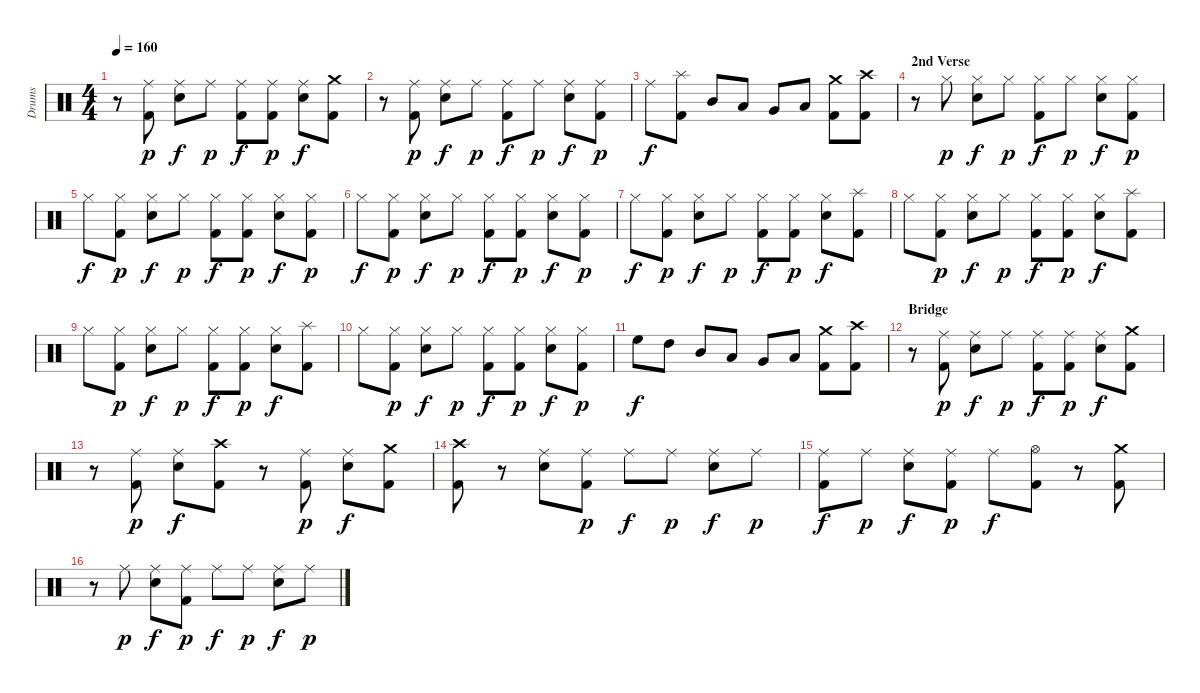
\track ("Drums" "Drums") {instrument percussion}
\staff {score}
\articulation defaults
\ts (4 4)
\tempo 160
\clef neutral
\ks c
r.8{dy f} ("Ride (middle)" "Kick (hit) 2").8{dy p} ("Ride (middle)" "Snare (hit) 2").8{dy f} "Ride (middle)".8{dy p} ("Ride (middle)" "Kick (hit) 2").8{dy f} ("Ride (middle)" "Kick (hit) 2").8{dy p} ("Ride (middle)" "Snare (hit) 2").8{dy f} ("Crash medium (hit)" "Kick (hit) 2").8 |
r.8 ("Ride (middle)" "Kick (hit) 2").8{dy p} ("Ride (middle)" "Snare (hit) 2").8{dy f} "Ride (middle)".8{dy p} ("Ride (middle)" "Kick (hit) 2").8{dy f} "Ride (middle)".8{dy p} ("Ride (middle)" "Snare (hit) 2").8{dy f} ("Ride (middle)" "Kick (hit) 2").8{dy p} |
"Ride (middle)".8{dy f} ("Splash (hit)" "Kick (hit) 2").8 "Mid Tom (hit)".8 "Low Tom (hit)".8 "Very Low Tom (hit)".8 "Low Floor Tom (hit)".8 ("Crash medium (hit)" "Kick (hit) 2").8 ("Crash high (hit)" "Kick (hit) 2").8 |
\section ("" "2nd Verse")
r.8 "Hi-Hat (closed)".8{dy p} ("Hi-Hat (closed)" "Snare (hit) 2").8{dy f} "Hi-Hat (closed)".8{dy p} ("Hi-Hat (closed)" "Kick (hit) 2").8{dy f} "Hi-Hat (closed)".8{dy p} ("Hi-Hat (closed)" "Snare (hit) 2").8{dy f} ("Hi-Hat (closed)" "Kick (hit) 2").8{dy p} |
"Hi-Hat (closed)".8{dy f} ("Hi-Hat (closed)" "Kick (hit) 2").8{dy p} ("Hi-Hat (closed)" "Snare (hit) 2").8{dy f} "Hi-Hat (closed)".8{dy p} ("Hi-Hat (closed)" "Kick (hit) 2").8{dy f} ("Hi-Hat (closed)" "Kick (hit) 2").8{dy p} ("Hi-Hat (closed)" "Snare (hit) 2").8{dy f} ("Hi-Hat (closed)" "Kick (hit) 2").8{dy p} |
"Hi-Hat (closed)".8{dy f} ("Hi-Hat (closed)" "Kick (hit) 2").8{dy p} ("Hi-Hat (closed)" "Snare (hit) 2").8{dy f} "Hi-Hat (closed)".8{dy p} ("Hi-Hat (closed)" "Kick (hit) 2").8{dy f} ("Hi-Hat (closed)" "Kick (hit) 2").8{dy p} ("Hi-Hat (closed)" "Snare (hit) 2").8{dy f} ("Hi-Hat (closed)" "Kick (hit) 2").8{dy p} |
"Hi-Hat (closed)".8{dy f} ("Hi-Hat (closed)" "Kick (hit) 2").8{dy p} ("Hi-Hat (closed)" "Snare (hit) 2").8{dy f} "Hi-Hat (closed)".8{dy p} ("Hi-Hat (closed)" "Kick (hit) 2").8{dy f} ("Hi-Hat (closed)" "Kick (hit) 2").8{dy p} ("Hi-Hat (closed)" "Snare (hit) 2").8{dy f} ("Splash (hit)" "Kick (hit) 2").8 |
"Hi-Hat (closed)".8 ("Hi-Hat (closed)" "Kick (hit) 2").8{dy p} ("Hi-Hat (closed)" "Snare (hit) 2").8{dy f} "Hi-Hat (closed)".8{dy p} ("Hi-Hat (closed)" "Kick (hit) 2").8{dy f} ("Hi-Hat (closed)" "Kick (hit) 2").8{dy p} ("Hi-Hat (closed)" "Snare (hit) 2").8{dy f} ("Splash (hit)" "Kick (hit) 2").8 |
"Hi-Hat (closed)".8 ("Hi-Hat (closed)" "Kick (hit) 2").8{dy p} ("Hi-Hat (closed)" "Snare (hit) 2").8{dy f} "Hi-Hat (closed)".8{dy p} ("Hi-Hat (closed)" "Kick (hit) 2").8{dy f} ("Hi-Hat (closed)" "Kick (hit) 2").8{dy p} ("Hi-Hat (closed)" "Snare (hit) 2").8{dy f} ("Splash (hit)" "Kick (hit) 2").8 |
"Hi-Hat (closed)".8 ("Hi-Hat (closed)" "Kick (hit) 2").8{dy p} ("Hi-Hat (closed)" "Snare (hit) 2").8{dy f} "Hi-Hat (closed)".8{dy p} ("Hi-Hat (closed)" "Kick (hit) 2").8{dy f} ("Hi-Hat (closed)" "Kick (hit) 2").8{dy p} ("Hi-Hat (closed)" "Snare (hit) 2").8{dy f} ("Hi-Hat (closed)" "Kick (hit) 2").8{dy p} |
"High Floor Tom (hit)".8{dy f} "High Tom (hit)".8 "Mid Tom (hit)".8 "Low Tom (hit)".8 "Very Low Tom (hit)".8 "Low Floor Tom (hit)".8 ("Crash medium (hit)" "Kick (hit) 2").8 ("Crash high (hit)" "Kick (hit) 2").8 |
\section ("" "Bridge")
r.8 ("Ride (middle)" "Kick (hit) 2").8{dy p} ("Ride (middle)" "Snare (hit) 2").8{dy f} "Ride (middle)".8{dy p} ("Ride (middle)" "Kick (hit) 2").8{dy f} ("Ride (middle)" "Kick (hit) 2").8{dy p} ("Ride (middle)" "Snare (hit) 2").8{dy f} ("Crash medium (hit)" "Kick (hit) 2").8 |
r.8 ("Ride (middle)" "Kick (hit) 2").8{dy p} ("Ride (middle)" "Snare (hit) 2").8{dy f} ("Crash high (hit)" "Kick (hit) 2").8 r.8 ("Ride (middle)" "Kick (hit) 2").8{dy p} ("Ride (middle)" "Snare (hit) 2").8{dy f} ("Crash medium (hit)" "Kick (hit) 2").8 |
("Crash high (hit)" "Kick (hit) 2").8 r.8 ("Ride (middle)" "Snare (hit) 2").8 ("Ride (middle)" "Kick (hit) 2").8{dy p} "Ride (middle)".8{dy f} "Ride (middle)".8{dy p} ("Ride (middle)" "Snare (hit) 2").8{dy f} "Ride (middle)".8{dy p} |
("Ride (middle)" "Kick (hit) 2").8{dy f} "Ride (middle)".8{dy p} ("Ride (middle)" "Snare (hit) 2").8{dy f} ("Ride (middle)" "Kick (hit) 2").8{dy p} "Ride (middle)".8{dy f} ("Hi-Hat (open)" "Kick (hit) 2").8 r.8 ("Crash medium (hit)" "Kick (hit) 2").8 |
r.8 "Ride (middle)".8{dy p} ("Ride (middle)" "Snare (hit) 2").8{dy f} ("Ride (middle)" "Kick (hit) 2").8{dy p} "Ride (middle)".8{dy f} "Ride (middle)".8{dy p} ("Ride (middle)" "Snare (hit) 2").8{dy f} "Ride (middle)".8{dy p}
